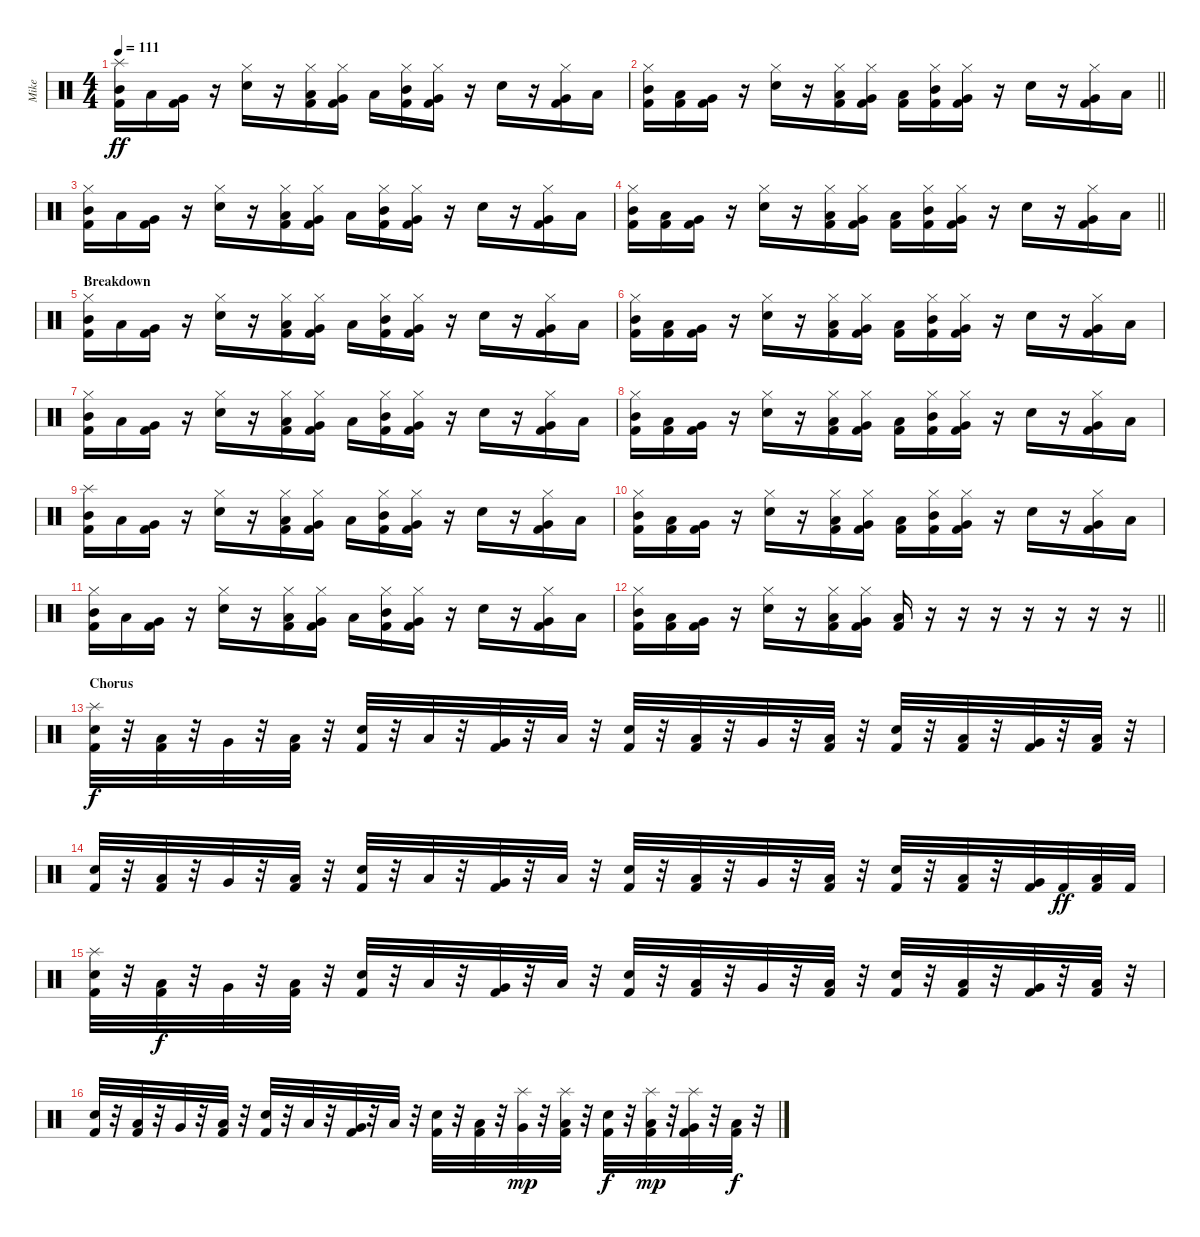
\track ("Mike" "Mike") {instrument percussion}
\staff {score}
\articulation defaults
\ts (4 4)
\tempo 111
\clef neutral
\ks c
("Splash (hit)" "Mid Tom (hit)" "Kick (hit) 2").16{dy ff} "Low Tom (hit)".16 ("Very Low Tom (hit)" "Kick (hit) 2").16 r.16 ("Hi-Hat (closed)" "Snare (hit) 2").16 r.16 ("Hi-Hat (closed)" "Low Tom (hit)" "Kick (hit) 2").16 ("Hi-Hat (closed)" "Very Low Tom (hit)" "Kick (hit) 2").16 "Low Tom (hit)".16 ("Hi-Hat (closed)" "Mid Tom (hit)" "Kick (hit) 2").16 ("Hi-Hat (closed)" "Very Low Tom (hit)" "Kick (hit) 2").16 r.16 "Snare (hit) 2".16 r.16 ("Hi-Hat (closed)" "Very Low Tom (hit)" "Kick (hit) 2").16 "Low Tom (hit)".16 |
\barLineRight lightlight
("Hi-Hat (closed)" "Mid Tom (hit)" "Kick (hit) 2").16 ("Low Tom (hit)" "Kick (hit) 2").16 ("Very Low Tom (hit)" "Kick (hit) 2").16 r.16 ("Hi-Hat (closed)" "Snare (hit) 2").16 r.16 ("Hi-Hat (closed)" "Low Tom (hit)" "Kick (hit) 2").16 ("Hi-Hat (closed)" "Very Low Tom (hit)" "Kick (hit) 2").16 ("Low Tom (hit)" "Kick (hit) 2").16 ("Hi-Hat (closed)" "Mid Tom (hit)" "Kick (hit) 2").16 ("Hi-Hat (closed)" "Very Low Tom (hit)" "Kick (hit) 2").16 r.16 "Snare (hit) 2".16 r.16 ("Hi-Hat (closed)" "Very Low Tom (hit)" "Kick (hit) 2").16 "Low Tom (hit)".16 |
("Hi-Hat (closed)" "Mid Tom (hit)" "Kick (hit) 2").16 "Low Tom (hit)".16 ("Very Low Tom (hit)" "Kick (hit) 2").16 r.16 ("Hi-Hat (closed)" "Snare (hit) 2").16 r.16 ("Hi-Hat (closed)" "Low Tom (hit)" "Kick (hit) 2").16 ("Hi-Hat (closed)" "Very Low Tom (hit)" "Kick (hit) 2").16 "Low Tom (hit)".16 ("Hi-Hat (closed)" "Mid Tom (hit)" "Kick (hit) 2").16 ("Hi-Hat (closed)" "Very Low Tom (hit)" "Kick (hit) 2").16 r.16 "Snare (hit) 2".16 r.16 ("Hi-Hat (closed)" "Very Low Tom (hit)" "Kick (hit) 2").16 "Low Tom (hit)".16 |
\barLineRight lightlight
("Hi-Hat (closed)" "Mid Tom (hit)" "Kick (hit) 2").16 ("Low Tom (hit)" "Kick (hit) 2").16 ("Very Low Tom (hit)" "Kick (hit) 2").16 r.16 ("Hi-Hat (closed)" "Snare (hit) 2").16 r.16 ("Hi-Hat (closed)" "Low Tom (hit)" "Kick (hit) 2").16 ("Hi-Hat (closed)" "Very Low Tom (hit)" "Kick (hit) 2").16 ("Low Tom (hit)" "Kick (hit) 2").16 ("Hi-Hat (closed)" "Mid Tom (hit)" "Kick (hit) 2").16 ("Hi-Hat (closed)" "Very Low Tom (hit)" "Kick (hit) 2").16 r.16 "Snare (hit) 2".16 r.16 ("Hi-Hat (closed)" "Very Low Tom (hit)" "Kick (hit) 2").16 "Low Tom (hit)".16 |
\section ("" "Breakdown")
("Hi-Hat (closed)" "Mid Tom (hit)" "Kick (hit) 2").16 "Low Tom (hit)".16 ("Very Low Tom (hit)" "Kick (hit) 2").16 r.16 ("Hi-Hat (closed)" "Snare (hit) 2").16 r.16 ("Hi-Hat (closed)" "Low Tom (hit)" "Kick (hit) 2").16 ("Hi-Hat (closed)" "Very Low Tom (hit)" "Kick (hit) 2").16 "Low Tom (hit)".16 ("Hi-Hat (closed)" "Mid Tom (hit)" "Kick (hit) 2").16 ("Hi-Hat (closed)" "Very Low Tom (hit)" "Kick (hit) 2").16 r.16 "Snare (hit) 2".16 r.16 ("Hi-Hat (closed)" "Very Low Tom (hit)" "Kick (hit) 2").16 "Low Tom (hit)".16 |
("Hi-Hat (closed)" "Mid Tom (hit)" "Kick (hit) 2").16 ("Low Tom (hit)" "Kick (hit) 2").16 ("Very Low Tom (hit)" "Kick (hit) 2").16 r.16 ("Hi-Hat (closed)" "Snare (hit) 2").16 r.16 ("Hi-Hat (closed)" "Low Tom (hit)" "Kick (hit) 2").16 ("Hi-Hat (closed)" "Very Low Tom (hit)" "Kick (hit) 2").16 ("Low Tom (hit)" "Kick (hit) 2").16 ("Hi-Hat (closed)" "Mid Tom (hit)" "Kick (hit) 2").16 ("Hi-Hat (closed)" "Very Low Tom (hit)" "Kick (hit) 2").16 r.16 "Snare (hit) 2".16 r.16 ("Hi-Hat (closed)" "Very Low Tom (hit)" "Kick (hit) 2").16 "Low Tom (hit)".16 |
("Hi-Hat (closed)" "Mid Tom (hit)" "Kick (hit) 2").16 "Low Tom (hit)".16 ("Very Low Tom (hit)" "Kick (hit) 2").16 r.16 ("Hi-Hat (closed)" "Snare (hit) 2").16 r.16 ("Hi-Hat (closed)" "Low Tom (hit)" "Kick (hit) 2").16 ("Hi-Hat (closed)" "Very Low Tom (hit)" "Kick (hit) 2").16 "Low Tom (hit)".16 ("Hi-Hat (closed)" "Mid Tom (hit)" "Kick (hit) 2").16 ("Hi-Hat (closed)" "Very Low Tom (hit)" "Kick (hit) 2").16 r.16 "Snare (hit) 2".16 r.16 ("Hi-Hat (closed)" "Very Low Tom (hit)" "Kick (hit) 2").16 "Low Tom (hit)".16 |
("Hi-Hat (closed)" "Mid Tom (hit)" "Kick (hit) 2").16 ("Low Tom (hit)" "Kick (hit) 2").16 ("Very Low Tom (hit)" "Kick (hit) 2").16 r.16 ("Hi-Hat (closed)" "Snare (hit) 2").16 r.16 ("Hi-Hat (closed)" "Low Tom (hit)" "Kick (hit) 2").16 ("Hi-Hat (closed)" "Very Low Tom (hit)" "Kick (hit) 2").16 ("Low Tom (hit)" "Kick (hit) 2").16 ("Hi-Hat (closed)" "Mid Tom (hit)" "Kick (hit) 2").16 ("Hi-Hat (closed)" "Very Low Tom (hit)" "Kick (hit) 2").16 r.16 "Snare (hit) 2".16 r.16 ("Hi-Hat (closed)" "Very Low Tom (hit)" "Kick (hit) 2").16 "Low Tom (hit)".16 |
("Splash (hit)" "Mid Tom (hit)" "Kick (hit) 2").16 "Low Tom (hit)".16 ("Very Low Tom (hit)" "Kick (hit) 2").16 r.16 ("Hi-Hat (closed)" "Snare (hit) 2").16 r.16 ("Hi-Hat (closed)" "Low Tom (hit)" "Kick (hit) 2").16 ("Hi-Hat (closed)" "Very Low Tom (hit)" "Kick (hit) 2").16 "Low Tom (hit)".16 ("Hi-Hat (closed)" "Mid Tom (hit)" "Kick (hit) 2").16 ("Hi-Hat (closed)" "Very Low Tom (hit)" "Kick (hit) 2").16 r.16 "Snare (hit) 2".16 r.16 ("Hi-Hat (closed)" "Very Low Tom (hit)" "Kick (hit) 2").16 "Low Tom (hit)".16 |
("Hi-Hat (closed)" "Mid Tom (hit)" "Kick (hit) 2").16 ("Low Tom (hit)" "Kick (hit) 2").16 ("Very Low Tom (hit)" "Kick (hit) 2").16 r.16 ("Hi-Hat (closed)" "Snare (hit) 2").16 r.16 ("Hi-Hat (closed)" "Low Tom (hit)" "Kick (hit) 2").16 ("Hi-Hat (closed)" "Very Low Tom (hit)" "Kick (hit) 2").16 ("Low Tom (hit)" "Kick (hit) 2").16 ("Hi-Hat (closed)" "Mid Tom (hit)" "Kick (hit) 2").16 ("Hi-Hat (closed)" "Very Low Tom (hit)" "Kick (hit) 2").16 r.16 "Snare (hit) 2".16 r.16 ("Hi-Hat (closed)" "Very Low Tom (hit)" "Kick (hit) 2").16 "Low Tom (hit)".16 |
("Hi-Hat (closed)" "Mid Tom (hit)" "Kick (hit) 2").16 "Low Tom (hit)".16 ("Very Low Tom (hit)" "Kick (hit) 2").16 r.16 ("Hi-Hat (closed)" "Snare (hit) 2").16 r.16 ("Hi-Hat (closed)" "Low Tom (hit)" "Kick (hit) 2").16 ("Hi-Hat (closed)" "Very Low Tom (hit)" "Kick (hit) 2").16 "Low Tom (hit)".16 ("Hi-Hat (closed)" "Mid Tom (hit)" "Kick (hit) 2").16 ("Hi-Hat (closed)" "Very Low Tom (hit)" "Kick (hit) 2").16 r.16 "Snare (hit) 2".16 r.16 ("Hi-Hat (closed)" "Very Low Tom (hit)" "Kick (hit) 2").16 "Low Tom (hit)".16 |
\barLineRight lightlight
("Hi-Hat (closed)" "Mid Tom (hit)" "Kick (hit) 2").16 ("Low Tom (hit)" "Kick (hit) 2").16 ("Very Low Tom (hit)" "Kick (hit) 2").16 r.16 ("Hi-Hat (closed)" "Snare (hit) 2").16 r.16 ("Hi-Hat (closed)" "Low Tom (hit)" "Kick (hit) 2").16 ("Hi-Hat (closed)" "Very Low Tom (hit)" "Kick (hit) 2").16 ("Low Tom (hit)" "Kick (hit) 2").16 r.16 r.16 r.16 r.16 r.16 r.16 r.16 |
\section ("" "Chorus")
("Splash (hit)" "Snare (hit) 2" "Kick (hit) 2").32{dy f} r.32 ("Low Tom (hit)" "Kick (hit) 2").32 r.32 "Very Low Tom (hit)".32 r.32 ("Low Floor Tom (hit)" "Kick (hit) 2").32 r.32 ("Snare (hit) 2" "Kick (hit) 2").32 r.32 "Low Tom (hit)".32 r.32 ("Very Low Tom (hit)" "Kick (hit) 2").32 r.32 "Low Floor Tom (hit)".32 r.32 ("Snare (hit) 2" "Kick (hit) 2").32 r.32 ("Low Tom (hit)" "Kick (hit) 2").32 r.32 "Very Low Tom (hit)".32 r.32 ("Low Floor Tom (hit)" "Kick (hit) 2").32 r.32 ("Snare (hit) 2" "Kick (hit) 2").32 r.32 ("Low Tom (hit)" "Kick (hit) 2").32 r.32 ("Very Low Tom (hit)" "Kick (hit) 2").32 r.32 ("Low Floor Tom (hit)" "Kick (hit) 2").32 r.32 |
("Snare (hit) 2" "Kick (hit) 2").32 r.32 ("Low Tom (hit)" "Kick (hit) 2").32 r.32 "Very Low Tom (hit)".32 r.32 ("Low Floor Tom (hit)" "Kick (hit) 2").32 r.32 ("Snare (hit) 2" "Kick (hit) 2").32 r.32 "Low Tom (hit)".32 r.32 ("Very Low Tom (hit)" "Kick (hit) 2").32 r.32 "Low Floor Tom (hit)".32 r.32 ("Snare (hit) 2" "Kick (hit) 2").32 r.32 ("Low Tom (hit)" "Kick (hit) 2").32 r.32 "Very Low Tom (hit)".32 r.32 ("Low Floor Tom (hit)" "Kick (hit) 2").32 r.32 ("Snare (hit) 2" "Kick (hit) 2").32 r.32 ("Low Tom (hit)" "Kick (hit) 2").32 r.32 ("Very Low Tom (hit)" "Kick (hit) 2").32 "Kick (hit) 2".32{dy ff} ("Low Floor Tom (hit)" "Kick (hit) 2").32 "Kick (hit) 2".32 |
("Splash (hit)" "Snare (hit) 2" "Kick (hit) 2").32 r.32 ("Low Tom (hit)" "Kick (hit) 2").32{dy f} r.32 "Very Low Tom (hit)".32 r.32 ("Low Floor Tom (hit)" "Kick (hit) 2").32 r.32 ("Snare (hit) 2" "Kick (hit) 2").32 r.32 "Low Tom (hit)".32 r.32 ("Very Low Tom (hit)" "Kick (hit) 2").32 r.32 "Low Floor Tom (hit)".32 r.32 ("Snare (hit) 2" "Kick (hit) 2").32 r.32 ("Low Tom (hit)" "Kick (hit) 2").32 r.32 "Very Low Tom (hit)".32 r.32 ("Low Floor Tom (hit)" "Kick (hit) 2").32 r.32 ("Snare (hit) 2" "Kick (hit) 2").32 r.32 ("Low Tom (hit)" "Kick (hit) 2").32 r.32 ("Very Low Tom (hit)" "Kick (hit) 2").32 r.32 ("Low Floor Tom (hit)" "Kick (hit) 2").32 r.32 |
("Snare (hit) 2" "Kick (hit) 2").32 r.32 ("Low Tom (hit)" "Kick (hit) 2").32 r.32 "Very Low Tom (hit)".32 r.32 ("Low Floor Tom (hit)" "Kick (hit) 2").32 r.32 ("Snare (hit) 2" "Kick (hit) 2").32 r.32 "Low Tom (hit)".32 r.32 ("Very Low Tom (hit)" "Kick (hit) 2").32 r.32 "Low Floor Tom (hit)".32 r.32 ("Snare (hit) 2" "Kick (hit) 2").32 r.32 ("Low Tom (hit)" "Kick (hit) 2").32 r.32 ("Splash (hit)" "Very Low Tom (hit)").32{dy mp} r.32 ("Splash (hit)" "Low Floor Tom (hit)" "Kick (hit) 2").32 r.32 ("Snare (hit) 2" "Kick (hit) 2").32{dy f} r.32 ("Splash (hit)" "Low Tom (hit)" "Kick (hit) 2").32{dy mp} r.32 ("Splash (hit)" "Very Low Tom (hit)" "Kick (hit) 2").32 r.32 ("Low Floor Tom (hit)" "Kick (hit) 2").32{dy f} r.32
